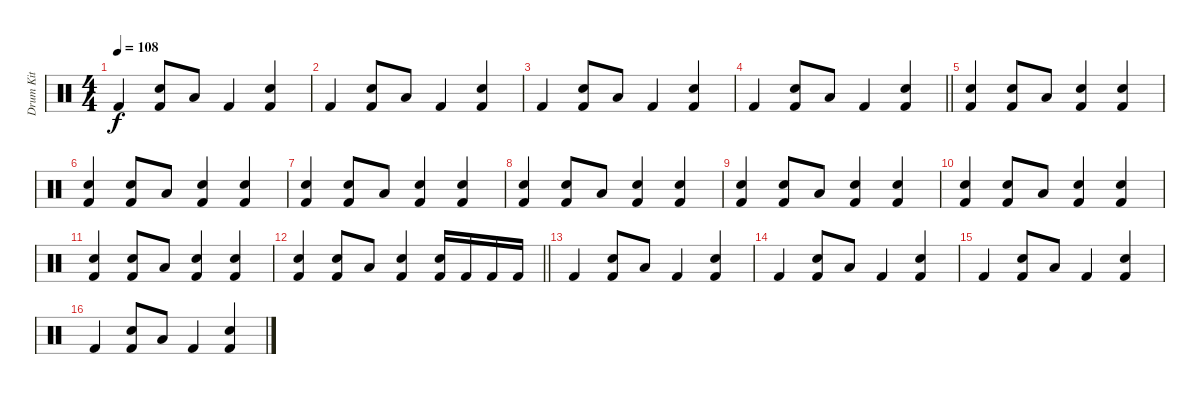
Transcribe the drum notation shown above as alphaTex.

\track ("Drum Kit" "Drum Kit") {instrument percussion}
\staff {score}
\articulation defaults
\ts (4 4)
\tempo 108
\clef neutral
\ks c "Kick (hit) 2".4{dy f}
("Electric Snare (hit)" "Kick (hit) 2").8 "Low Floor Tom (hit)".8 "Kick (hit) 2".4 ("Electric Snare (hit)" "Kick (hit) 2").4 |
"Kick (hit) 2".4 ("Electric Snare (hit)" "Kick (hit) 2").8 "Low Floor Tom (hit)".8 "Kick (hit) 2".4 ("Electric Snare (hit)" "Kick (hit) 2").4 |
"Kick (hit) 2".4 ("Electric Snare (hit)" "Kick (hit) 2").8 "Low Floor Tom (hit)".8 "Kick (hit) 2".4 ("Electric Snare (hit)" "Kick (hit) 2").4 |
\barLineRight lightlight "Kick (hit) 2".4
("Electric Snare (hit)" "Kick (hit) 2").8 "Low Floor Tom (hit)".8 "Kick (hit) 2".4 ("Electric Snare (hit)" "Kick (hit) 2").4 |
\section ("" "")
("Electric Snare (hit)" "Kick (hit) 2").4 ("Electric Snare (hit)" "Kick (hit) 2").8 "Low Floor Tom (hit)".8 ("Electric Snare (hit)" "Kick (hit) 2").4 ("Electric Snare (hit)" "Kick (hit) 2").4 |
("Electric Snare (hit)" "Kick (hit) 2").4 ("Electric Snare (hit)" "Kick (hit) 2").8 "Low Floor Tom (hit)".8 ("Electric Snare (hit)" "Kick (hit) 2").4 ("Electric Snare (hit)" "Kick (hit) 2").4 |
("Electric Snare (hit)" "Kick (hit) 2").4 ("Electric Snare (hit)" "Kick (hit) 2").8 "Low Floor Tom (hit)".8 ("Electric Snare (hit)" "Kick (hit) 2").4 ("Electric Snare (hit)" "Kick (hit) 2").4 |
("Electric Snare (hit)" "Kick (hit) 2").4 ("Electric Snare (hit)" "Kick (hit) 2").8 "Low Floor Tom (hit)".8 ("Electric Snare (hit)" "Kick (hit) 2").4 ("Electric Snare (hit)" "Kick (hit) 2").4 |
("Electric Snare (hit)" "Kick (hit) 2").4 ("Electric Snare (hit)" "Kick (hit) 2").8 "Low Floor Tom (hit)".8 ("Electric Snare (hit)" "Kick (hit) 2").4 ("Electric Snare (hit)" "Kick (hit) 2").4 |
("Electric Snare (hit)" "Kick (hit) 2").4 ("Electric Snare (hit)" "Kick (hit) 2").8 "Low Floor Tom (hit)".8 ("Electric Snare (hit)" "Kick (hit) 2").4 ("Electric Snare (hit)" "Kick (hit) 2").4 |
("Electric Snare (hit)" "Kick (hit) 2").4 ("Electric Snare (hit)" "Kick (hit) 2").8 "Low Floor Tom (hit)".8 ("Electric Snare (hit)" "Kick (hit) 2").4 ("Electric Snare (hit)" "Kick (hit) 2").4 |
\barLineRight lightlight
("Electric Snare (hit)" "Kick (hit) 2").4 ("Electric Snare (hit)" "Kick (hit) 2").8 "Low Floor Tom (hit)".8 ("Electric Snare (hit)" "Kick (hit) 2").4 ("Electric Snare (hit)" "Kick (hit) 2").16 "Kick (hit) 2".16 "Kick (hit) 2".16 "Kick (hit) 2".16 |
\section ("" "")
"Kick (hit) 2".4 ("Electric Snare (hit)" "Kick (hit) 2").8 "Low Floor Tom (hit)".8 "Kick (hit) 2".4 ("Electric Snare (hit)" "Kick (hit) 2").4 |
"Kick (hit) 2".4 ("Electric Snare (hit)" "Kick (hit) 2").8 "Low Floor Tom (hit)".8 "Kick (hit) 2".4 ("Electric Snare (hit)" "Kick (hit) 2").4 |
"Kick (hit) 2".4 ("Electric Snare (hit)" "Kick (hit) 2").8 "Low Floor Tom (hit)".8 "Kick (hit) 2".4 ("Electric Snare (hit)" "Kick (hit) 2").4 |
"Kick (hit) 2".4 ("Electric Snare (hit)" "Kick (hit) 2").8 "Low Floor Tom (hit)".8 "Kick (hit) 2".4 ("Electric Snare (hit)" "Kick (hit) 2").4
